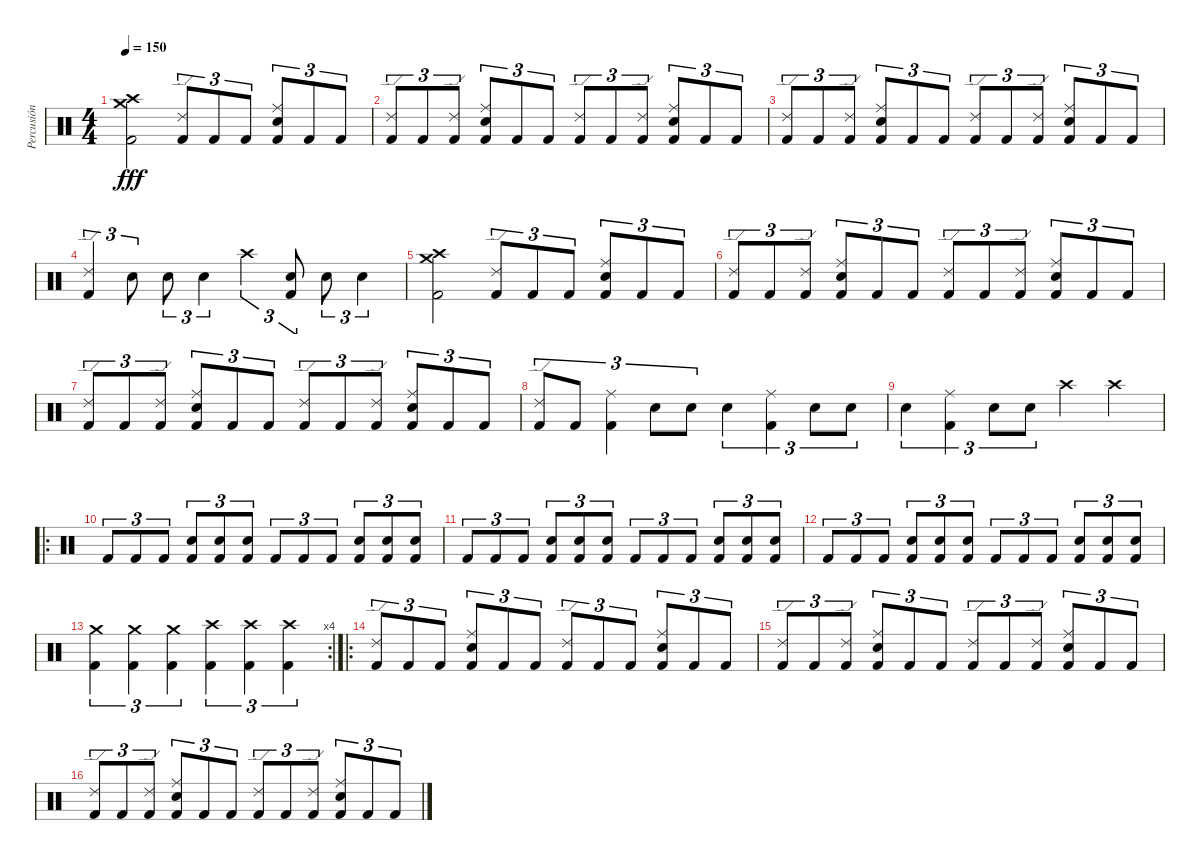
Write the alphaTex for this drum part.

\track ("Percusión" "Percusión") {instrument percussion}
\staff {score}
\articulation defaults
\ts (4 4)
\tempo 150
\clef neutral
\ks c
("Crash high (hit)" "Crash medium (hit)" "Kick (hit) 2").2{dy fff} ("Ride (edge) 2" "Kick (hit) 2").8{tu (3 2)} "Kick (hit) 2".8{tu (3 2)} "Kick (hit) 2".8{tu (3 2)} ("Ride (middle)" "Snare (hit) 2" "Kick (hit) 2").8{tu (3 2)} "Kick (hit) 2".8{tu (3 2)} "Kick (hit) 2".8{tu (3 2)} |
("Ride (edge) 2" "Kick (hit) 2").8{tu (3 2)} "Kick (hit) 2".8{tu (3 2)} ("Ride (edge) 2" "Kick (hit) 2").8{tu (3 2)} ("Ride (middle)" "Snare (hit) 2" "Kick (hit) 2").8{tu (3 2)} "Kick (hit) 2".8{tu (3 2)} "Kick (hit) 2".8{tu (3 2)} ("Ride (edge) 2" "Kick (hit) 2").8{tu (3 2)} "Kick (hit) 2".8{tu (3 2)} ("Ride (edge) 2" "Kick (hit) 2").8{tu (3 2)} ("Ride (middle)" "Snare (hit) 2" "Kick (hit) 2").8{tu (3 2)} "Kick (hit) 2".8{tu (3 2)} "Kick (hit) 2".8{tu (3 2)} |
("Ride (edge) 2" "Kick (hit) 2").8{tu (3 2)} "Kick (hit) 2".8{tu (3 2)} ("Ride (edge) 2" "Kick (hit) 2").8{tu (3 2)} ("Ride (middle)" "Snare (hit) 2" "Kick (hit) 2").8{tu (3 2)} "Kick (hit) 2".8{tu (3 2)} "Kick (hit) 2".8{tu (3 2)} ("Ride (edge) 2" "Kick (hit) 2").8{tu (3 2)} "Kick (hit) 2".8{tu (3 2)} ("Ride (edge) 2" "Kick (hit) 2").8{tu (3 2)} ("Ride (middle)" "Snare (hit) 2" "Kick (hit) 2").8{tu (3 2)} "Kick (hit) 2".8{tu (3 2)} "Kick (hit) 2".8{tu (3 2)} |
("Ride (edge) 2" "Kick (hit) 2").4{tu (3 2)} "Snare (hit) 2".8{tu (3 2)} "Snare (hit) 2".8{tu (3 2)} "Snare (hit) 2".4{tu (3 2)} "Crash high (hit)".4{tu (3 2)} ("Snare (hit) 2" "Kick (hit) 2").8{tu (3 2)} "Snare (hit) 2".8{tu (3 2)} "Snare (hit) 2".4{tu (3 2)} |
("Crash high (hit)" "Crash medium (hit)" "Kick (hit) 2").2 ("Ride (edge) 2" "Kick (hit) 2").8{tu (3 2)} "Kick (hit) 2".8{tu (3 2)} "Kick (hit) 2".8{tu (3 2)} ("Ride (middle)" "Snare (hit) 2" "Kick (hit) 2").8{tu (3 2)} "Kick (hit) 2".8{tu (3 2)} "Kick (hit) 2".8{tu (3 2)} |
("Ride (edge) 2" "Kick (hit) 2").8{tu (3 2)} "Kick (hit) 2".8{tu (3 2)} ("Ride (edge) 2" "Kick (hit) 2").8{tu (3 2)} ("Ride (middle)" "Snare (hit) 2" "Kick (hit) 2").8{tu (3 2)} "Kick (hit) 2".8{tu (3 2)} "Kick (hit) 2".8{tu (3 2)} ("Ride (edge) 2" "Kick (hit) 2").8{tu (3 2)} "Kick (hit) 2".8{tu (3 2)} ("Ride (edge) 2" "Kick (hit) 2").8{tu (3 2)} ("Ride (middle)" "Snare (hit) 2" "Kick (hit) 2").8{tu (3 2)} "Kick (hit) 2".8{tu (3 2)} "Kick (hit) 2".8{tu (3 2)} |
("Ride (edge) 2" "Kick (hit) 2").8{tu (3 2)} "Kick (hit) 2".8{tu (3 2)} ("Ride (edge) 2" "Kick (hit) 2").8{tu (3 2)} ("Ride (middle)" "Snare (hit) 2" "Kick (hit) 2").8{tu (3 2)} "Kick (hit) 2".8{tu (3 2)} "Kick (hit) 2".8{tu (3 2)} ("Ride (edge) 2" "Kick (hit) 2").8{tu (3 2)} "Kick (hit) 2".8{tu (3 2)} ("Ride (edge) 2" "Kick (hit) 2").8{tu (3 2)} ("Ride (middle)" "Snare (hit) 2" "Kick (hit) 2").8{tu (3 2)} "Kick (hit) 2".8{tu (3 2)} "Kick (hit) 2".8{tu (3 2)} |
("Ride (edge) 2" "Kick (hit) 2").8{tu (3 2)} "Kick (hit) 2".8{tu (3 2)} ("Ride (middle)" "Kick (hit) 2").4{tu (3 2)} "Electric Snare (hit)".8{tu (3 2)} "Electric Snare (hit)".8{tu (3 2)} "Electric Snare (hit)".4{tu (3 2)} ("Ride (middle)" "Kick (hit) 2").4{tu (3 2)} "Electric Snare (hit)".8{tu (3 2)} "Electric Snare (hit)".8{tu (3 2)} |
"Electric Snare (hit)".4{tu (3 2)} ("Ride (middle)" "Kick (hit) 2").4{tu (3 2)} "Electric Snare (hit)".8{tu (3 2)} "Electric Snare (hit)".8{tu (3 2)} "Crash high (hit)".4 "Crash high (hit)".4 |
\ro "Kick (hit) 2".8{tu (3 2)} "Kick (hit) 2".8{tu (3 2)} "Kick (hit) 2".8{tu (3 2)}
("Electric Snare (hit)" "Kick (hit) 2").8{tu (3 2)} ("Electric Snare (hit)" "Kick (hit) 2").8{tu (3 2)} ("Electric Snare (hit)" "Kick (hit) 2").8{tu (3 2)} "Kick (hit) 2".8{tu (3 2)} "Kick (hit) 2".8{tu (3 2)} "Kick (hit) 2".8{tu (3 2)} ("Electric Snare (hit)" "Kick (hit) 2").8{tu (3 2)} ("Electric Snare (hit)" "Kick (hit) 2").8{tu (3 2)} ("Electric Snare (hit)" "Kick (hit) 2").8{tu (3 2)} |
"Kick (hit) 2".8{tu (3 2)} "Kick (hit) 2".8{tu (3 2)} "Kick (hit) 2".8{tu (3 2)} ("Electric Snare (hit)" "Kick (hit) 2").8{tu (3 2)} ("Electric Snare (hit)" "Kick (hit) 2").8{tu (3 2)} ("Electric Snare (hit)" "Kick (hit) 2").8{tu (3 2)} "Kick (hit) 2".8{tu (3 2)} "Kick (hit) 2".8{tu (3 2)} "Kick (hit) 2".8{tu (3 2)} ("Electric Snare (hit)" "Kick (hit) 2").8{tu (3 2)} ("Electric Snare (hit)" "Kick (hit) 2").8{tu (3 2)} ("Electric Snare (hit)" "Kick (hit) 2").8{tu (3 2)} |
"Kick (hit) 2".8{tu (3 2)} "Kick (hit) 2".8{tu (3 2)} "Kick (hit) 2".8{tu (3 2)} ("Electric Snare (hit)" "Kick (hit) 2").8{tu (3 2)} ("Electric Snare (hit)" "Kick (hit) 2").8{tu (3 2)} ("Electric Snare (hit)" "Kick (hit) 2").8{tu (3 2)} "Kick (hit) 2".8{tu (3 2)} "Kick (hit) 2".8{tu (3 2)} "Kick (hit) 2".8{tu (3 2)} ("Electric Snare (hit)" "Kick (hit) 2").8{tu (3 2)} ("Electric Snare (hit)" "Kick (hit) 2").8{tu (3 2)} ("Electric Snare (hit)" "Kick (hit) 2").8{tu (3 2)} |
\rc 4
("Crash medium (hit)" "Kick (hit) 2").4{tu (3 2)} ("Crash medium (hit)" "Kick (hit) 2").4{tu (3 2)} ("Crash medium (hit)" "Kick (hit) 2").4{tu (3 2)} ("Crash high (hit)" "Kick (hit) 2").4{tu (3 2)} ("Crash high (hit)" "Kick (hit) 2").4{tu (3 2)} ("Crash high (hit)" "Kick (hit) 2").4{tu (3 2)} |
\ro
("Ride (edge) 2" "Kick (hit) 2").8{tu (3 2)} "Kick (hit) 2".8{tu (3 2)} "Kick (hit) 2".8{tu (3 2)} ("Ride (middle)" "Snare (hit) 2" "Kick (hit) 2").8{tu (3 2)} "Kick (hit) 2".8{tu (3 2)} "Kick (hit) 2".8{tu (3 2)} ("Ride (edge) 2" "Kick (hit) 2").8{tu (3 2)} "Kick (hit) 2".8{tu (3 2)} "Kick (hit) 2".8{tu (3 2)} ("Ride (middle)" "Snare (hit) 2" "Kick (hit) 2").8{tu (3 2)} "Kick (hit) 2".8{tu (3 2)} "Kick (hit) 2".8{tu (3 2)} |
("Ride (edge) 2" "Kick (hit) 2").8{tu (3 2)} "Kick (hit) 2".8{tu (3 2)} ("Ride (edge) 2" "Kick (hit) 2").8{tu (3 2)} ("Ride (middle)" "Snare (hit) 2" "Kick (hit) 2").8{tu (3 2)} "Kick (hit) 2".8{tu (3 2)} "Kick (hit) 2".8{tu (3 2)} ("Ride (edge) 2" "Kick (hit) 2").8{tu (3 2)} "Kick (hit) 2".8{tu (3 2)} ("Ride (edge) 2" "Kick (hit) 2").8{tu (3 2)} ("Ride (middle)" "Snare (hit) 2" "Kick (hit) 2").8{tu (3 2)} "Kick (hit) 2".8{tu (3 2)} "Kick (hit) 2".8{tu (3 2)} |
("Ride (edge) 2" "Kick (hit) 2").8{tu (3 2)} "Kick (hit) 2".8{tu (3 2)} ("Ride (edge) 2" "Kick (hit) 2").8{tu (3 2)} ("Ride (middle)" "Snare (hit) 2" "Kick (hit) 2").8{tu (3 2)} "Kick (hit) 2".8{tu (3 2)} "Kick (hit) 2".8{tu (3 2)} ("Ride (edge) 2" "Kick (hit) 2").8{tu (3 2)} "Kick (hit) 2".8{tu (3 2)} ("Ride (edge) 2" "Kick (hit) 2").8{tu (3 2)} ("Ride (middle)" "Snare (hit) 2" "Kick (hit) 2").8{tu (3 2)} "Kick (hit) 2".8{tu (3 2)} "Kick (hit) 2".8{tu (3 2)}
